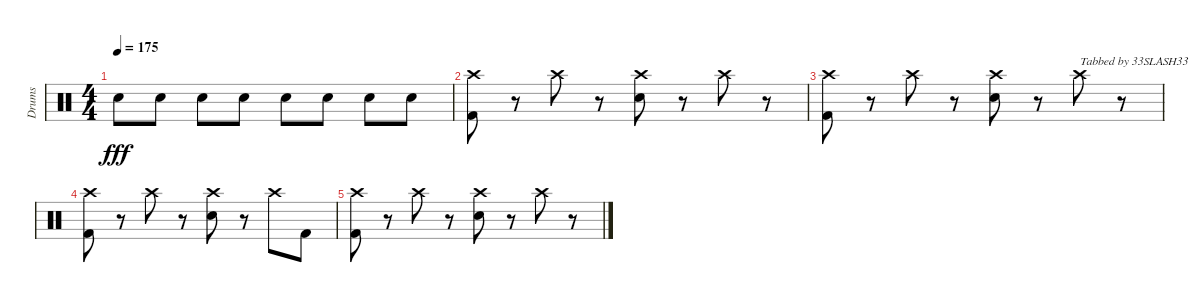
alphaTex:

\track ("Drums" "Drums") {instrument percussion}
\staff {score}
\articulation defaults
\ts (4 4)
\tempo 175
\clef neutral
\ks c "Snare (hit) 2".8{dy fff} "Snare (hit) 2".8 "Snare (hit) 2".8 "Snare (hit) 2".8 "Snare (hit) 2".8 "Snare (hit) 2".8 "Snare (hit) 2".8 "Snare (hit) 2".8
|
("Crash high (hit)" "Kick (hit) 2").8 r.8 "Crash high (hit)".8 r.8 ("Crash high (hit)" "Snare (hit) 2").8 r.8 "Crash high (hit)".8 r.8 |
("Crash high (hit)" "Kick (hit) 2").8 r.8 "Crash high (hit)".8 r.8 ("Crash high (hit)" "Snare (hit) 2").8 r.8 "Crash high (hit)".8{txt "Tabbed by 33SLASH33"} r.8 |
("Crash high (hit)" "Kick (hit) 2").8 r.8 "Crash high (hit)".8 r.8 ("Crash high (hit)" "Snare (hit) 2").8 r.8 "Crash high (hit)".8 "Kick (hit) 2".8 |
("Crash high (hit)" "Kick (hit) 2").8 r.8 "Crash high (hit)".8 r.8 ("Crash high (hit)" "Snare (hit) 2").8 r.8 "Crash high (hit)".8 r.8
